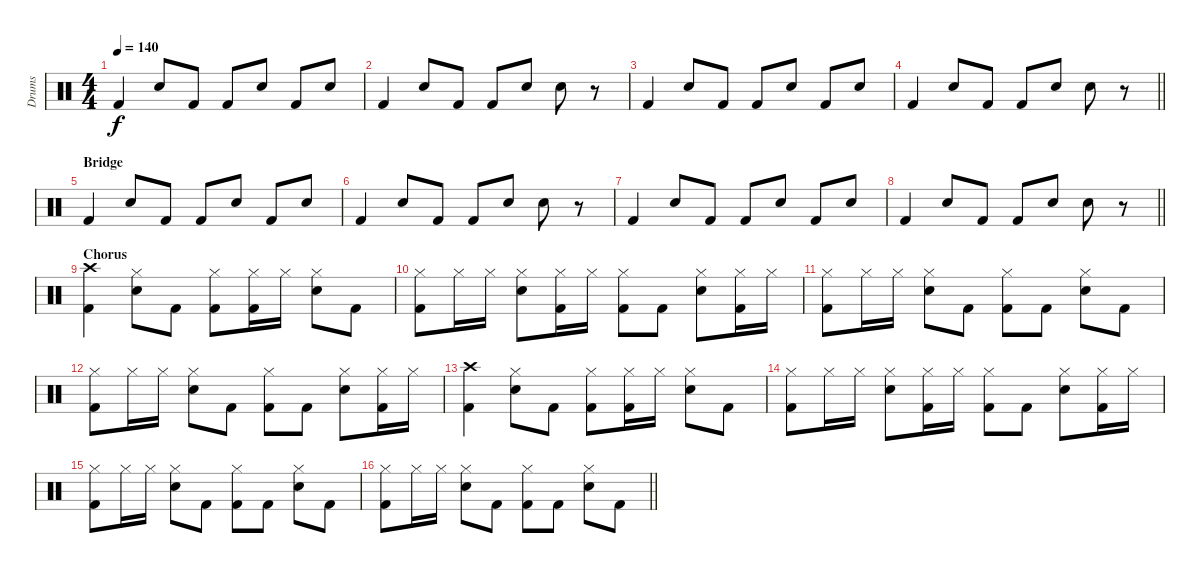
\track ("Drums" "Drums") {instrument percussion}
\staff {score}
\articulation defaults
\ts (4 4)
\tempo 140
\clef neutral
\ks c "Kick (hit) 2".4{dy f} "Electric Snare (hit)".8 "Kick (hit) 2".8 "Kick (hit) 2".8 "Electric Snare (hit)".8 "Kick (hit) 2".8 "Electric Snare (hit)".8
|
"Kick (hit) 2".4 "Electric Snare (hit)".8 "Kick (hit) 2".8 "Kick (hit) 2".8 "Electric Snare (hit)".8 "Electric Snare (hit)".8 r.8 |
"Kick (hit) 2".4 "Electric Snare (hit)".8 "Kick (hit) 2".8 "Kick (hit) 2".8 "Electric Snare (hit)".8 "Kick (hit) 2".8 "Electric Snare (hit)".8 |
\barLineRight lightlight "Kick (hit) 2".4 "Electric Snare (hit)".8 "Kick (hit) 2".8 "Kick (hit) 2".8 "Electric Snare (hit)".8 "Electric Snare (hit)".8
r.8 |
\section ("" "Bridge")
"Kick (hit) 2".4 "Electric Snare (hit)".8 "Kick (hit) 2".8 "Kick (hit) 2".8 "Electric Snare (hit)".8 "Kick (hit) 2".8 "Electric Snare (hit)".8 |
"Kick (hit) 2".4 "Electric Snare (hit)".8 "Kick (hit) 2".8 "Kick (hit) 2".8 "Electric Snare (hit)".8 "Electric Snare (hit)".8 r.8 |
"Kick (hit) 2".4 "Electric Snare (hit)".8 "Kick (hit) 2".8 "Kick (hit) 2".8 "Electric Snare (hit)".8 "Kick (hit) 2".8 "Electric Snare (hit)".8 |
\barLineRight lightlight "Kick (hit) 2".4 "Electric Snare (hit)".8 "Kick (hit) 2".8 "Kick (hit) 2".8 "Electric Snare (hit)".8 "Electric Snare (hit)".8
r.8 |
\section ("" "Chorus")
("Crash high (hit)" "Kick (hit) 2").4 ("Hi-Hat (closed)" "Electric Snare (hit)").8 "Kick (hit) 2".8 ("Hi-Hat (closed)" "Kick (hit) 2").8 ("Hi-Hat (closed)" "Kick (hit) 2").16 "Hi-Hat (closed)".16 ("Hi-Hat (closed)" "Electric Snare (hit)").8 "Kick (hit) 2".8 |
("Hi-Hat (closed)" "Kick (hit) 2").8 "Hi-Hat (closed)".16 "Hi-Hat (closed)".16 ("Hi-Hat (closed)" "Electric Snare (hit)").8 ("Hi-Hat (closed)" "Kick (hit) 2").16 "Hi-Hat (closed)".16 ("Hi-Hat (closed)" "Kick (hit) 2").8 "Kick (hit) 2".8 ("Hi-Hat (closed)" "Electric Snare (hit)").8 ("Hi-Hat (closed)" "Kick (hit) 2").16 "Hi-Hat (closed)".16 |
("Hi-Hat (closed)" "Kick (hit) 2").8 "Hi-Hat (closed)".16 "Hi-Hat (closed)".16 ("Hi-Hat (closed)" "Electric Snare (hit)").8 "Kick (hit) 2".8 ("Hi-Hat (closed)" "Kick (hit) 2").8 "Kick (hit) 2".8 ("Hi-Hat (closed)" "Electric Snare (hit)").8 "Kick (hit) 2".8 |
("Hi-Hat (closed)" "Kick (hit) 2").8 "Hi-Hat (closed)".16 "Hi-Hat (closed)".16 ("Hi-Hat (closed)" "Electric Snare (hit)").8 "Kick (hit) 2".8 ("Hi-Hat (closed)" "Kick (hit) 2").8 "Kick (hit) 2".8 ("Hi-Hat (closed)" "Electric Snare (hit)").8 ("Hi-Hat (closed)" "Kick (hit) 2").16 "Hi-Hat (closed)".16 |
("Crash high (hit)" "Kick (hit) 2").4 ("Hi-Hat (closed)" "Electric Snare (hit)").8 "Kick (hit) 2".8 ("Hi-Hat (closed)" "Kick (hit) 2").8 ("Hi-Hat (closed)" "Kick (hit) 2").16 "Hi-Hat (closed)".16 ("Hi-Hat (closed)" "Electric Snare (hit)").8 "Kick (hit) 2".8 |
("Hi-Hat (closed)" "Kick (hit) 2").8 "Hi-Hat (closed)".16 "Hi-Hat (closed)".16 ("Hi-Hat (closed)" "Electric Snare (hit)").8 ("Hi-Hat (closed)" "Kick (hit) 2").16 "Hi-Hat (closed)".16 ("Hi-Hat (closed)" "Kick (hit) 2").8 "Kick (hit) 2".8 ("Hi-Hat (closed)" "Electric Snare (hit)").8 ("Hi-Hat (closed)" "Kick (hit) 2").16 "Hi-Hat (closed)".16 |
("Hi-Hat (closed)" "Kick (hit) 2").8 "Hi-Hat (closed)".16 "Hi-Hat (closed)".16 ("Hi-Hat (closed)" "Electric Snare (hit)").8 "Kick (hit) 2".8 ("Hi-Hat (closed)" "Kick (hit) 2").8 "Kick (hit) 2".8 ("Hi-Hat (closed)" "Electric Snare (hit)").8 "Kick (hit) 2".8 |
\barLineRight lightlight
("Hi-Hat (closed)" "Kick (hit) 2").8 "Hi-Hat (closed)".16 "Hi-Hat (closed)".16 ("Hi-Hat (closed)" "Electric Snare (hit)").8 "Kick (hit) 2".8 ("Hi-Hat (closed)" "Kick (hit) 2").8 "Kick (hit) 2".8 ("Hi-Hat (closed)" "Electric Snare (hit)").8 "Kick (hit) 2".8
